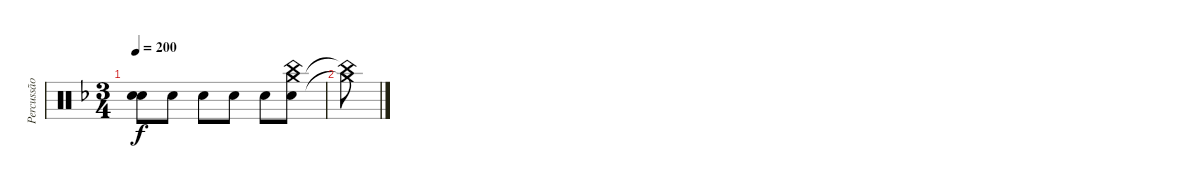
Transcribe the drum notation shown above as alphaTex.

\track ("Percussão" "Percussão") {instrument percussion}
\staff {score}
\articulation defaults
\ts (3 4)
\tempo 200
\clef neutral
\ks dminor
("Hand Clap (hit)" "Snare (hit) 2").8{dy f} "Hand Clap (hit)".8 "Hand Clap (hit)".8 "Hand Clap (hit)".8 "Hand Clap (hit)".8 ("Hand Clap (hit)" "Crash medium (hit)" "China (hit)").8 |
("Crash medium (hit)"{t} "China (hit)"{t}).8
